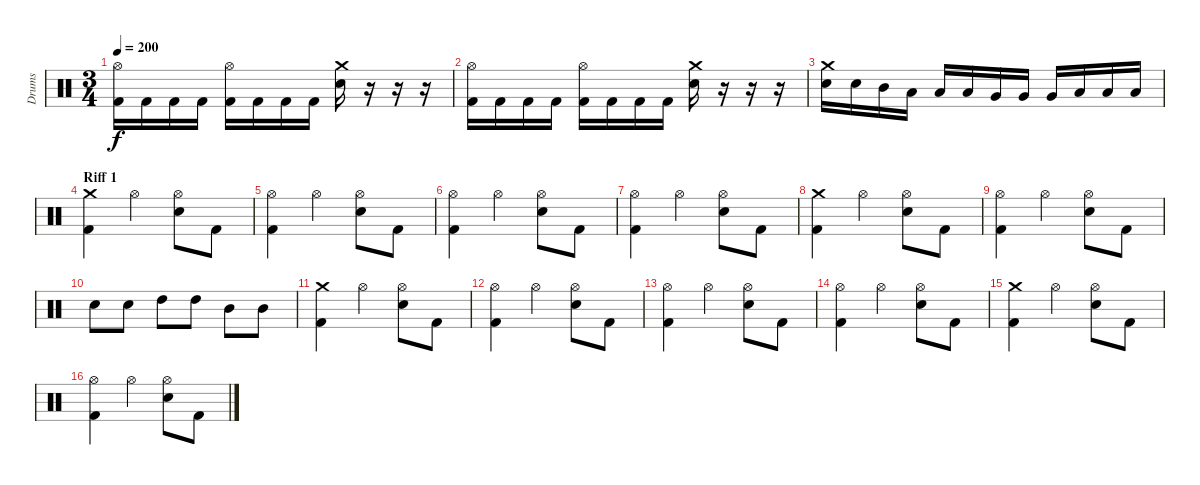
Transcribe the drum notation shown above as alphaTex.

\track ("Drums" "Drums") {instrument percussion}
\staff {score}
\articulation defaults
\ts (3 4)
\tempo 200
\clef neutral
\ks c
("Hi-Hat (open)" "Kick (hit) 2").16{dy f} "Kick (hit) 2".16 "Kick (hit) 2".16 "Kick (hit) 2".16 ("Hi-Hat (open)" "Kick (hit) 2").16 "Kick (hit) 2".16 "Kick (hit) 2".16 "Kick (hit) 2".16 ("Crash medium (hit)" "Electric Snare (hit)").16 r.16 r.16 r.16 |
("Hi-Hat (open)" "Kick (hit) 2").16 "Kick (hit) 2".16 "Kick (hit) 2".16 "Kick (hit) 2".16 ("Hi-Hat (open)" "Kick (hit) 2").16 "Kick (hit) 2".16 "Kick (hit) 2".16 "Kick (hit) 2".16 ("Crash medium (hit)" "Electric Snare (hit)").16 r.16 r.16 r.16 |
("Crash medium (hit)" "Electric Snare (hit)").16 "Electric Snare (hit)".16 "Mid Tom (hit)".16 "Low Tom (hit)".16 "Low Tom (hit)".16 "Low Tom (hit)".16 "Very Low Tom (hit)".16 "Very Low Tom (hit)".16 "Very Low Tom (hit)".16 "Low Floor Tom (hit)".16 "Low Floor Tom (hit)".16 "Low Floor Tom (hit)".16 |
\section ("" "Riff 1")
("Crash medium (hit)" "Kick (hit) 2").4 "Hi-Hat (open)".4 ("Hi-Hat (open)" "Electric Snare (hit)").8 "Kick (hit) 2".8 |
("Hi-Hat (open)" "Kick (hit) 2").4 "Hi-Hat (open)".4 ("Hi-Hat (open)" "Electric Snare (hit)").8 "Kick (hit) 2".8 |
("Hi-Hat (open)" "Kick (hit) 2").4 "Hi-Hat (open)".4 ("Hi-Hat (open)" "Electric Snare (hit)").8 "Kick (hit) 2".8 |
("Hi-Hat (open)" "Kick (hit) 2").4 "Hi-Hat (open)".4 ("Hi-Hat (open)" "Electric Snare (hit)").8 "Kick (hit) 2".8 |
("Crash medium (hit)" "Kick (hit) 2").4 "Hi-Hat (open)".4 ("Hi-Hat (open)" "Electric Snare (hit)").8 "Kick (hit) 2".8 |
("Hi-Hat (open)" "Kick (hit) 2").4 "Hi-Hat (open)".4 ("Hi-Hat (open)" "Electric Snare (hit)").8 "Kick (hit) 2".8 |
"Electric Snare (hit)".8 "Electric Snare (hit)".8 "High Tom (hit)".8 "High Tom (hit)".8 "Mid Tom (hit)".8 "Mid Tom (hit)".8 |
("Crash medium (hit)" "Kick (hit) 2").4 "Hi-Hat (open)".4 ("Hi-Hat (open)" "Electric Snare (hit)").8 "Kick (hit) 2".8 |
("Hi-Hat (open)" "Kick (hit) 2").4 "Hi-Hat (open)".4 ("Hi-Hat (open)" "Electric Snare (hit)").8 "Kick (hit) 2".8 |
("Hi-Hat (open)" "Kick (hit) 2").4 "Hi-Hat (open)".4 ("Hi-Hat (open)" "Electric Snare (hit)").8 "Kick (hit) 2".8 |
("Hi-Hat (open)" "Kick (hit) 2").4 "Hi-Hat (open)".4 ("Hi-Hat (open)" "Electric Snare (hit)").8 "Kick (hit) 2".8 |
("Crash medium (hit)" "Kick (hit) 2").4 "Hi-Hat (open)".4 ("Hi-Hat (open)" "Electric Snare (hit)").8 "Kick (hit) 2".8 |
("Hi-Hat (open)" "Kick (hit) 2").4 "Hi-Hat (open)".4 ("Hi-Hat (open)" "Electric Snare (hit)").8 "Kick (hit) 2".8
